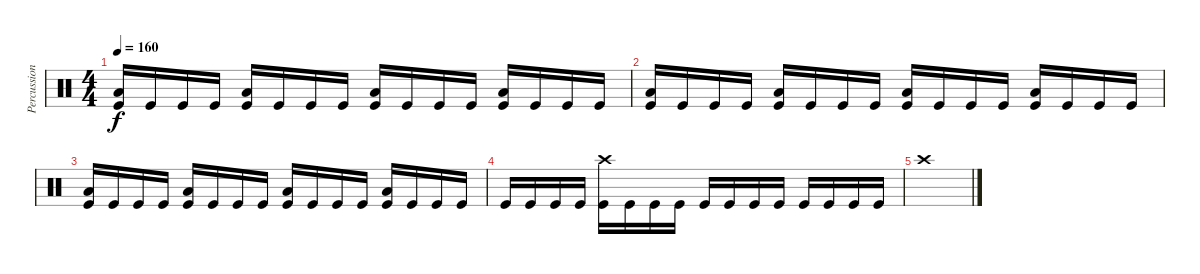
\track ("Percussion" "Percussion") {instrument percussion}
\staff {score}
\articulation defaults
\ts (4 4)
\tempo 160
\clef neutral
\ks c
("Low Floor Tom (hit)" "Kick (hit)").16{dy f} "Kick (hit)".16 "Kick (hit)".16 "Kick (hit)".16 ("Low Floor Tom (hit)" "Kick (hit)").16 "Kick (hit)".16 "Kick (hit)".16 "Kick (hit)".16 ("Low Floor Tom (hit)" "Kick (hit)").16 "Kick (hit)".16 "Kick (hit)".16 "Kick (hit)".16 ("Low Floor Tom (hit)" "Kick (hit)").16 "Kick (hit)".16 "Kick (hit)".16 "Kick (hit)".16 |
("Low Floor Tom (hit)" "Kick (hit)").16 "Kick (hit)".16 "Kick (hit)".16 "Kick (hit)".16 ("Low Floor Tom (hit)" "Kick (hit)").16 "Kick (hit)".16 "Kick (hit)".16 "Kick (hit)".16 ("Low Floor Tom (hit)" "Kick (hit)").16 "Kick (hit)".16 "Kick (hit)".16 "Kick (hit)".16 ("Low Floor Tom (hit)" "Kick (hit)").16 "Kick (hit)".16 "Kick (hit)".16 "Kick (hit)".16 |
("Low Floor Tom (hit)" "Kick (hit)").16 "Kick (hit)".16 "Kick (hit)".16 "Kick (hit)".16 ("Low Floor Tom (hit)" "Kick (hit)").16 "Kick (hit)".16 "Kick (hit)".16 "Kick (hit)".16 ("Low Floor Tom (hit)" "Kick (hit)").16 "Kick (hit)".16 "Kick (hit)".16 "Kick (hit)".16 ("Low Floor Tom (hit)" "Kick (hit)").16 "Kick (hit)".16 "Kick (hit)".16 "Kick (hit)".16 |
"Kick (hit)".16 "Kick (hit)".16 "Kick (hit)".16 "Kick (hit)".16 ("Crash high (hit)" "Kick (hit)").16 "Kick (hit)".16 "Kick (hit)".16 "Kick (hit)".16 "Kick (hit)".16 "Kick (hit)".16 "Kick (hit)".16 "Kick (hit)".16 "Kick (hit)".16 "Kick (hit)".16 "Kick (hit)".16 "Kick (hit)".16 |
"Crash high (hit)".1
